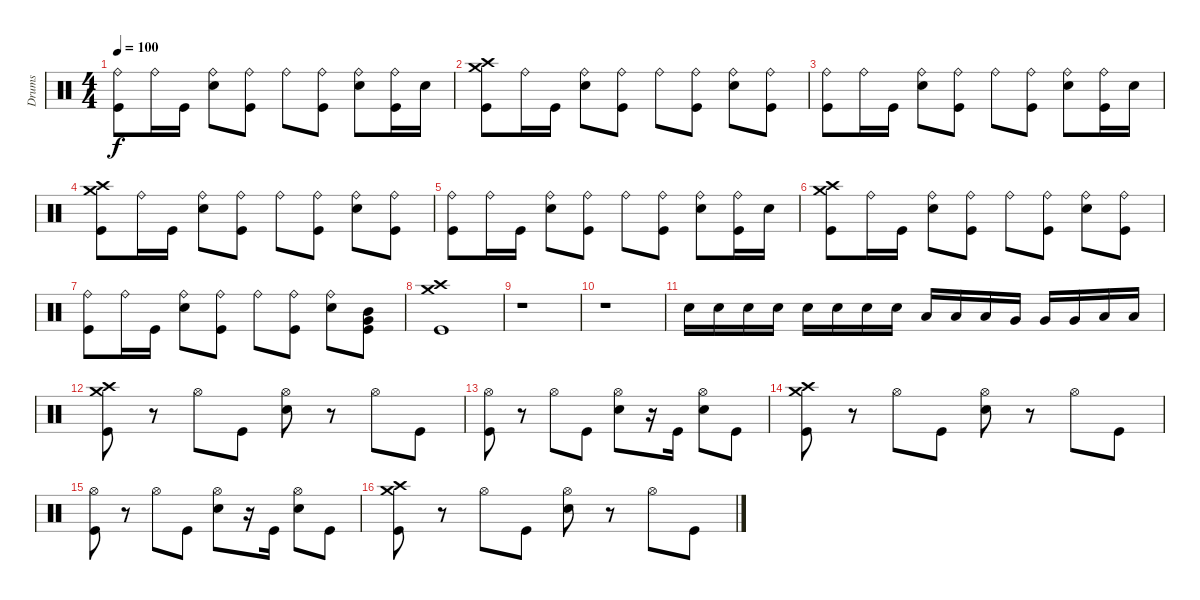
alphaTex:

\track ("Drums" "Drums") {instrument percussion}
\staff {score}
\articulation defaults
\ts (4 4)
\tempo 100
\clef neutral
\ks c
("Kick (hit)" "Ride (bell)").8{dy f} "Ride (bell)".16 "Kick (hit)".16 ("Electric Snare (hit)" "Ride (bell)").8 ("Kick (hit)" "Ride (bell)").8 "Ride (bell)".8 ("Kick (hit)" "Ride (bell)").8 ("Electric Snare (hit)" "Ride (bell)").8 ("Kick (hit)" "Ride (bell)").16 "Electric Snare (hit)".16 |
("Kick (hit)" "Crash medium (hit)" "Crash high (hit)").8 "Ride (bell)".16 "Kick (hit)".16 ("Electric Snare (hit)" "Ride (bell)").8 ("Kick (hit)" "Ride (bell)").8 "Ride (bell)".8 ("Kick (hit)" "Ride (bell)").8 ("Electric Snare (hit)" "Ride (bell)").8 ("Kick (hit)" "Ride (bell)").8 |
("Kick (hit)" "Ride (bell)").8 "Ride (bell)".16 "Kick (hit)".16 ("Electric Snare (hit)" "Ride (bell)").8 ("Kick (hit)" "Ride (bell)").8 "Ride (bell)".8 ("Kick (hit)" "Ride (bell)").8 ("Electric Snare (hit)" "Ride (bell)").8 ("Kick (hit)" "Ride (bell)").16 "Electric Snare (hit)".16 |
("Kick (hit)" "Crash medium (hit)" "Crash high (hit)").8 "Ride (bell)".16 "Kick (hit)".16 ("Electric Snare (hit)" "Ride (bell)").8 ("Kick (hit)" "Ride (bell)").8 "Ride (bell)".8 ("Kick (hit)" "Ride (bell)").8 ("Electric Snare (hit)" "Ride (bell)").8 ("Kick (hit)" "Ride (bell)").8 |
("Kick (hit)" "Ride (bell)").8 "Ride (bell)".16 "Kick (hit)".16 ("Electric Snare (hit)" "Ride (bell)").8 ("Kick (hit)" "Ride (bell)").8 "Ride (bell)".8 ("Kick (hit)" "Ride (bell)").8 ("Electric Snare (hit)" "Ride (bell)").8 ("Kick (hit)" "Ride (bell)").16 "Electric Snare (hit)".16 |
("Kick (hit)" "Crash high (hit)" "Crash medium (hit)").8 "Ride (bell)".16 "Kick (hit)".16 ("Electric Snare (hit)" "Ride (bell)").8 ("Kick (hit)" "Ride (bell)").8 "Ride (bell)".8 ("Kick (hit)" "Ride (bell)").8 ("Electric Snare (hit)" "Ride (bell)").8 ("Kick (hit)" "Ride (bell)").8 |
("Kick (hit)" "Ride (bell)").8 "Ride (bell)".16 "Kick (hit)".16 ("Electric Snare (hit)" "Ride (bell)").8 ("Kick (hit)" "Ride (bell)").8 "Ride (bell)".8 ("Kick (hit)" "Ride (bell)").8 ("Electric Snare (hit)" "Ride (bell)").8 ("Kick (hit)" "Very Low Tom (hit)" "Mid Tom (hit)").8 |
("Kick (hit)" "Crash high (hit)" "Crash medium (hit)").1 |
r.1 |
r.1 |
"Electric Snare (hit)".16 "Electric Snare (hit)".16 "Electric Snare (hit)".16 "Electric Snare (hit)".16 "Electric Snare (hit)".16 "Electric Snare (hit)".16 "Electric Snare (hit)".16 "Electric Snare (hit)".16 "Low Tom (hit)".16 "Low Tom (hit)".16 "Low Tom (hit)".16 "Very Low Tom (hit)".16 "Very Low Tom (hit)".16 "Very Low Tom (hit)".16 "Low Floor Tom (hit)".16 "Low Floor Tom (hit)".16 |
("Kick (hit)" "Crash medium (hit)" "Crash high (hit)").8 r.8 "Hi-Hat (open)".8 "Kick (hit)".8 ("Electric Snare (hit)" "Hi-Hat (open)").8 r.8 "Hi-Hat (open)".8 "Kick (hit)".8 |
("Kick (hit)" "Hi-Hat (open)").8 r.8 "Hi-Hat (open)".8 "Kick (hit)".8 ("Electric Snare (hit)" "Hi-Hat (open)").8 r.16 "Kick (hit)".16 ("Electric Snare (hit)" "Hi-Hat (open)").8 "Kick (hit)".8 |
("Kick (hit)" "Crash medium (hit)" "Crash high (hit)").8 r.8 "Hi-Hat (open)".8 "Kick (hit)".8 ("Electric Snare (hit)" "Hi-Hat (open)").8 r.8 "Hi-Hat (open)".8 "Kick (hit)".8 |
("Kick (hit)" "Hi-Hat (open)").8 r.8 "Hi-Hat (open)".8 "Kick (hit)".8 ("Electric Snare (hit)" "Hi-Hat (open)").8 r.16 "Kick (hit)".16 ("Electric Snare (hit)" "Hi-Hat (open)").8 "Kick (hit)".8 |
("Kick (hit)" "Crash medium (hit)" "Crash high (hit)").8 r.8 "Hi-Hat (open)".8 "Kick (hit)".8 ("Electric Snare (hit)" "Hi-Hat (open)").8 r.8 "Hi-Hat (open)".8 "Kick (hit)".8
